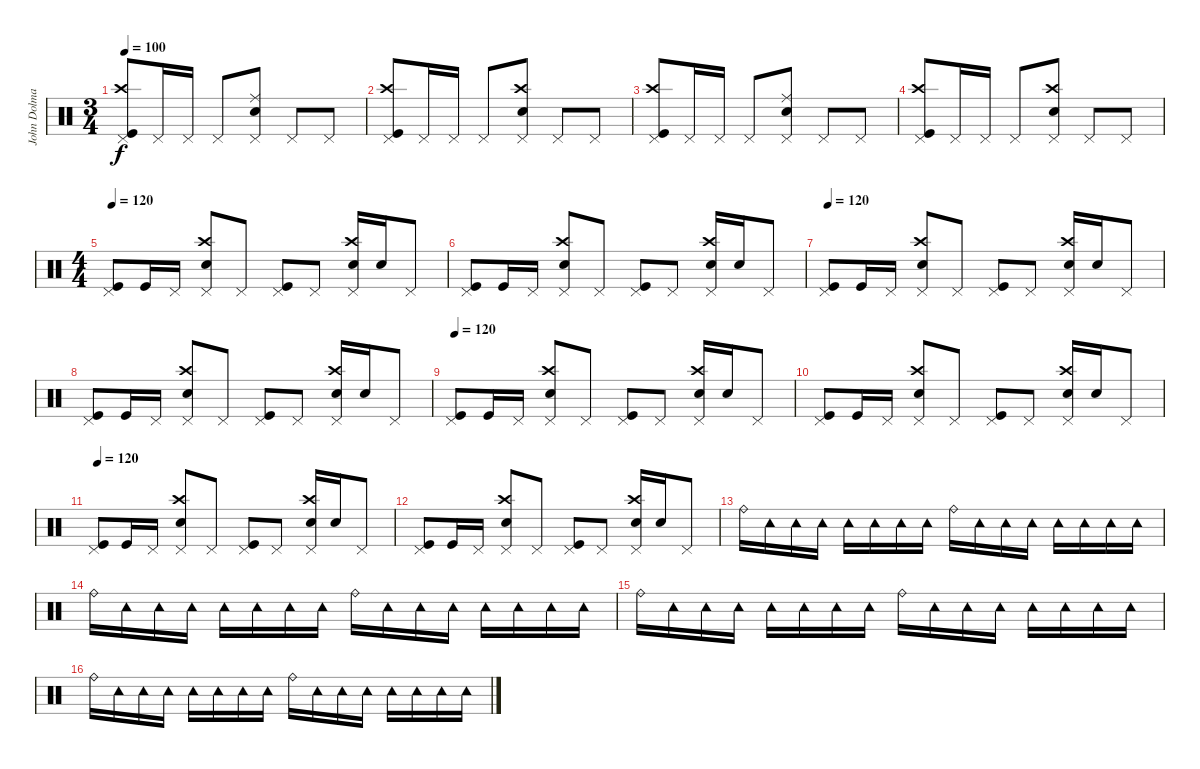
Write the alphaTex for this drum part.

\track ("John Dolmayan" "John Dolma") {instrument percussion}
\staff {score}
\articulation defaults
\ts (3 4)
\tempo 100
\clef neutral
\ks c
("Pedal Hi-Hat (hit)" "Crash high (hit)" "Kick (hit)").8{dy f} "Pedal Hi-Hat (hit)".16 "Pedal Hi-Hat (hit)".16 "Pedal Hi-Hat (hit)".8 ("Pedal Hi-Hat (hit)" "Electric Snare (hit)" "Ride (middle)").8 "Pedal Hi-Hat (hit)".8 "Pedal Hi-Hat (hit)".8 |
("Pedal Hi-Hat (hit)" "Crash high (hit)" "Kick (hit)").8 "Pedal Hi-Hat (hit)".16 "Pedal Hi-Hat (hit)".16 "Pedal Hi-Hat (hit)".8 ("Pedal Hi-Hat (hit)" "Electric Snare (hit)" "Crash high (hit)").8 "Pedal Hi-Hat (hit)".8 "Pedal Hi-Hat (hit)".8 |
("Pedal Hi-Hat (hit)" "Crash high (hit)" "Kick (hit)").8 "Pedal Hi-Hat (hit)".16 "Pedal Hi-Hat (hit)".16 "Pedal Hi-Hat (hit)".8 ("Pedal Hi-Hat (hit)" "Electric Snare (hit)" "Ride (middle)").8 "Pedal Hi-Hat (hit)".8 "Pedal Hi-Hat (hit)".8 |
("Pedal Hi-Hat (hit)" "Crash high (hit)" "Kick (hit)").8 "Pedal Hi-Hat (hit)".16 "Pedal Hi-Hat (hit)".16 "Pedal Hi-Hat (hit)".8 ("Pedal Hi-Hat (hit)" "Electric Snare (hit)" "Crash high (hit)").8 "Pedal Hi-Hat (hit)".8 "Pedal Hi-Hat (hit)".8 |
\ts (4 4)
\tempo 120
("Pedal Hi-Hat (hit)" "Kick (hit)").8 "Kick (hit)".16 "Pedal Hi-Hat (hit)".16 ("Crash high (hit)" "Pedal Hi-Hat (hit)" "Electric Snare (hit)").8 "Pedal Hi-Hat (hit)".8 ("Pedal Hi-Hat (hit)" "Kick (hit)").8 "Pedal Hi-Hat (hit)".8 ("Crash high (hit)" "Pedal Hi-Hat (hit)" "Electric Snare (hit)").16 "Electric Snare (hit)".16 "Pedal Hi-Hat (hit)".8 |
("Pedal Hi-Hat (hit)" "Kick (hit)").8 "Kick (hit)".16 "Pedal Hi-Hat (hit)".16 ("Crash high (hit)" "Pedal Hi-Hat (hit)" "Electric Snare (hit)").8 "Pedal Hi-Hat (hit)".8 ("Pedal Hi-Hat (hit)" "Kick (hit)").8 "Pedal Hi-Hat (hit)".8 ("Crash high (hit)" "Pedal Hi-Hat (hit)" "Electric Snare (hit)").16 "Electric Snare (hit)".16 "Pedal Hi-Hat (hit)".8 |
\tempo 120
("Pedal Hi-Hat (hit)" "Kick (hit)").8 "Kick (hit)".16 "Pedal Hi-Hat (hit)".16 ("Crash high (hit)" "Pedal Hi-Hat (hit)" "Electric Snare (hit)").8 "Pedal Hi-Hat (hit)".8 ("Pedal Hi-Hat (hit)" "Kick (hit)").8 "Pedal Hi-Hat (hit)".8 ("Crash high (hit)" "Pedal Hi-Hat (hit)" "Electric Snare (hit)").16 "Electric Snare (hit)".16 "Pedal Hi-Hat (hit)".8 |
("Pedal Hi-Hat (hit)" "Kick (hit)").8 "Kick (hit)".16 "Pedal Hi-Hat (hit)".16 ("Crash high (hit)" "Pedal Hi-Hat (hit)" "Electric Snare (hit)").8 "Pedal Hi-Hat (hit)".8 ("Pedal Hi-Hat (hit)" "Kick (hit)").8 "Pedal Hi-Hat (hit)".8 ("Crash high (hit)" "Pedal Hi-Hat (hit)" "Electric Snare (hit)").16 "Electric Snare (hit)".16 "Pedal Hi-Hat (hit)".8 |
\tempo 120
("Pedal Hi-Hat (hit)" "Kick (hit)").8 "Kick (hit)".16 "Pedal Hi-Hat (hit)".16 ("Crash high (hit)" "Pedal Hi-Hat (hit)" "Electric Snare (hit)").8 "Pedal Hi-Hat (hit)".8 ("Pedal Hi-Hat (hit)" "Kick (hit)").8 "Pedal Hi-Hat (hit)".8 ("Crash high (hit)" "Pedal Hi-Hat (hit)" "Electric Snare (hit)").16 "Electric Snare (hit)".16 "Pedal Hi-Hat (hit)".8 |
("Pedal Hi-Hat (hit)" "Kick (hit)").8 "Kick (hit)".16 "Pedal Hi-Hat (hit)".16 ("Crash high (hit)" "Pedal Hi-Hat (hit)" "Electric Snare (hit)").8 "Pedal Hi-Hat (hit)".8 ("Pedal Hi-Hat (hit)" "Kick (hit)").8 "Pedal Hi-Hat (hit)".8 ("Crash high (hit)" "Pedal Hi-Hat (hit)" "Electric Snare (hit)").16 "Electric Snare (hit)".16 "Pedal Hi-Hat (hit)".8 |
\tempo 120
("Pedal Hi-Hat (hit)" "Kick (hit)").8 "Kick (hit)".16 "Pedal Hi-Hat (hit)".16 ("Crash high (hit)" "Pedal Hi-Hat (hit)" "Electric Snare (hit)").8 "Pedal Hi-Hat (hit)".8 ("Pedal Hi-Hat (hit)" "Kick (hit)").8 "Pedal Hi-Hat (hit)".8 ("Crash high (hit)" "Pedal Hi-Hat (hit)" "Electric Snare (hit)").16 "Electric Snare (hit)".16 "Pedal Hi-Hat (hit)".8 |
("Pedal Hi-Hat (hit)" "Kick (hit)").8 "Kick (hit)".16 "Pedal Hi-Hat (hit)".16 ("Crash high (hit)" "Pedal Hi-Hat (hit)" "Electric Snare (hit)").8 "Pedal Hi-Hat (hit)".8 ("Pedal Hi-Hat (hit)" "Kick (hit)").8 "Pedal Hi-Hat (hit)".8 ("Crash high (hit)" "Pedal Hi-Hat (hit)" "Electric Snare (hit)").16 "Electric Snare (hit)".16 "Pedal Hi-Hat (hit)".8 |
"Ride (bell)".16 "Tambourine (hit)".16 "Tambourine (hit)".16 "Tambourine (hit)".16 "Tambourine (hit)".16 "Tambourine (hit)".16 "Tambourine (hit)".16 "Tambourine (hit)".16 "Ride (bell)".16 "Tambourine (hit)".16 "Tambourine (hit)".16 "Tambourine (hit)".16 "Tambourine (hit)".16 "Tambourine (hit)".16 "Tambourine (hit)".16 "Tambourine (hit)".16 |
"Ride (bell)".16 "Tambourine (hit)".16 "Tambourine (hit)".16 "Tambourine (hit)".16 "Tambourine (hit)".16 "Tambourine (hit)".16 "Tambourine (hit)".16 "Tambourine (hit)".16 "Ride (bell)".16 "Tambourine (hit)".16 "Tambourine (hit)".16 "Tambourine (hit)".16 "Tambourine (hit)".16 "Tambourine (hit)".16 "Tambourine (hit)".16 "Tambourine (hit)".16 |
"Ride (bell)".16 "Tambourine (hit)".16 "Tambourine (hit)".16 "Tambourine (hit)".16 "Tambourine (hit)".16 "Tambourine (hit)".16 "Tambourine (hit)".16 "Tambourine (hit)".16 "Ride (bell)".16 "Tambourine (hit)".16 "Tambourine (hit)".16 "Tambourine (hit)".16 "Tambourine (hit)".16 "Tambourine (hit)".16 "Tambourine (hit)".16 "Tambourine (hit)".16 |
"Ride (bell)".16 "Tambourine (hit)".16 "Tambourine (hit)".16 "Tambourine (hit)".16 "Tambourine (hit)".16 "Tambourine (hit)".16 "Tambourine (hit)".16 "Tambourine (hit)".16 "Ride (bell)".16 "Tambourine (hit)".16 "Tambourine (hit)".16 "Tambourine (hit)".16 "Tambourine (hit)".16 "Tambourine (hit)".16 "Tambourine (hit)".16 "Tambourine (hit)".16
